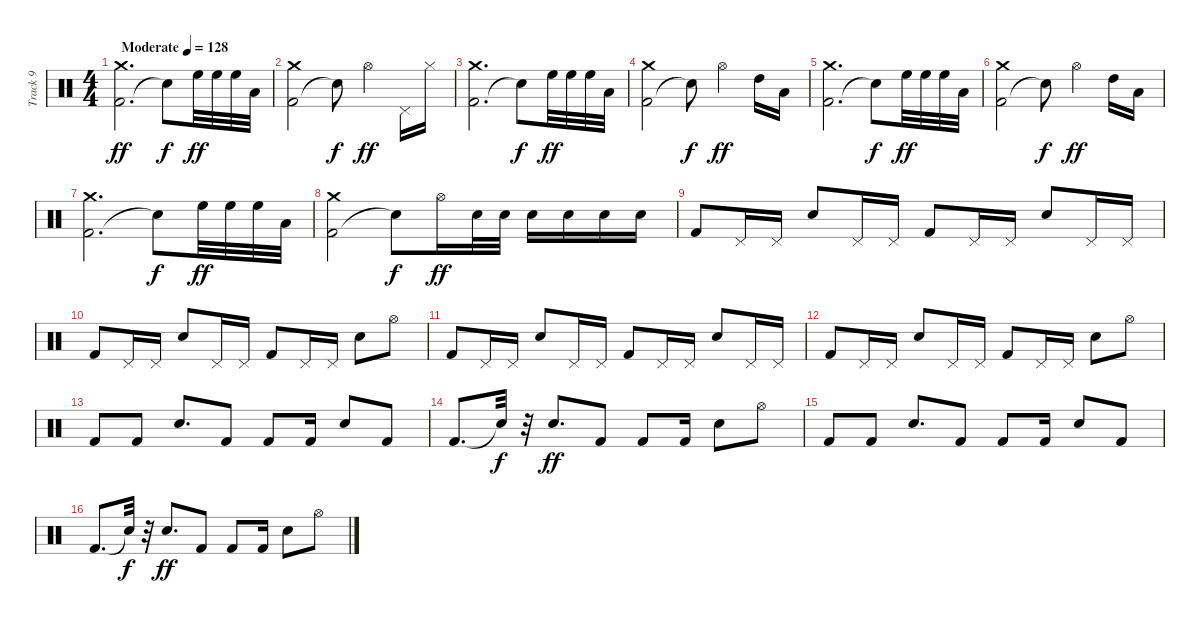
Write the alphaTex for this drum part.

\track ("Track 9" "Track 9") {instrument percussion}
\staff {score}
\articulation defaults
\ts (4 4)
\tempo (128 "Moderate")
\clef neutral
\ks c
("Kick (hit) 2" "Crash medium (hit)").2{d dy ff} "Snare (hit)"{t}.8{dy f} "High Floor Tom (hit)".32{dy ff} "High Floor Tom (hit)".32 "High Floor Tom (hit)".32 "Low Tom (hit)".32 |
("Kick (hit) 2" "Crash medium (hit)").2 "Snare (hit)"{t}.8{dy f} "Hi-Hat (open)".4{dy ff} "Pedal Hi-Hat (hit)".16 "Hi-Hat (closed)".16 |
("Kick (hit) 2" "Crash medium (hit)").2{d} "Snare (hit)"{t}.8{dy f} "High Floor Tom (hit)".32{dy ff} "High Floor Tom (hit)".32 "High Floor Tom (hit)".32 "Low Tom (hit)".32 |
("Kick (hit) 2" "Crash medium (hit)").2 "Snare (hit)"{t}.8{dy f} "Hi-Hat (open)".4{dy ff} "High Tom (hit)".16 "Low Tom (hit)".16 |
("Kick (hit) 2" "Crash medium (hit)").2{d} "Snare (hit)"{t}.8{dy f} "High Floor Tom (hit)".32{dy ff} "High Floor Tom (hit)".32 "High Floor Tom (hit)".32 "Low Tom (hit)".32 |
("Kick (hit) 2" "Crash medium (hit)").2 "Snare (hit)"{t}.8{dy f} "Hi-Hat (open)".4{dy ff} "High Tom (hit)".16 "Low Tom (hit)".16 |
("Kick (hit) 2" "Crash medium (hit)").2{d} "Snare (hit)"{t}.8{dy f} "High Floor Tom (hit)".32{dy ff} "High Floor Tom (hit)".32 "High Floor Tom (hit)".32 "Low Tom (hit)".32 |
("Kick (hit) 2" "Crash medium (hit)").2 "Snare (hit)"{t}.8{dy f} "Hi-Hat (open)".16{dy ff} "Snare (hit) 2".32 "Snare (hit) 2".32 "Snare (hit) 2".16 "Snare (hit) 2".16 "Snare (hit) 2".16 "Snare (hit) 2".16 |
"Kick (hit) 2".8 "Pedal Hi-Hat (hit)".16 "Pedal Hi-Hat (hit)".16 "Snare (hit) 2".8 "Pedal Hi-Hat (hit)".16 "Pedal Hi-Hat (hit)".16 "Kick (hit) 2".8 "Pedal Hi-Hat (hit)".16 "Pedal Hi-Hat (hit)".16 "Snare (hit) 2".8 "Pedal Hi-Hat (hit)".16 "Pedal Hi-Hat (hit)".16 |
"Kick (hit) 2".8 "Pedal Hi-Hat (hit)".16 "Pedal Hi-Hat (hit)".16 "Snare (hit) 2".8 "Pedal Hi-Hat (hit)".16 "Pedal Hi-Hat (hit)".16 "Kick (hit) 2".8 "Pedal Hi-Hat (hit)".16 "Pedal Hi-Hat (hit)".16 "Snare (hit) 2".8 "Hi-Hat (open)".8 |
"Kick (hit) 2".8 "Pedal Hi-Hat (hit)".16 "Pedal Hi-Hat (hit)".16 "Snare (hit) 2".8 "Pedal Hi-Hat (hit)".16 "Pedal Hi-Hat (hit)".16 "Kick (hit) 2".8 "Pedal Hi-Hat (hit)".16 "Pedal Hi-Hat (hit)".16 "Snare (hit) 2".8 "Pedal Hi-Hat (hit)".16 "Pedal Hi-Hat (hit)".16 |
"Kick (hit) 2".8 "Pedal Hi-Hat (hit)".16 "Pedal Hi-Hat (hit)".16 "Snare (hit) 2".8 "Pedal Hi-Hat (hit)".16 "Pedal Hi-Hat (hit)".16 "Kick (hit) 2".8 "Pedal Hi-Hat (hit)".16 "Pedal Hi-Hat (hit)".16 "Snare (hit) 2".8 "Hi-Hat (open)".8 |
"Kick (hit) 2".8 "Kick (hit) 2".8 "Snare (hit) 2".8{d} "Kick (hit) 2".8 "Kick (hit) 2".8 "Kick (hit) 2".16 "Snare (hit) 2".8 "Kick (hit) 2".8 |
"Kick (hit) 2".8{d} "Snare (hit)"{t}.32{dy f} r.32 "Snare (hit) 2".8{d dy ff} "Kick (hit) 2".8 "Kick (hit) 2".8 "Kick (hit) 2".16 "Snare (hit) 2".8 "Hi-Hat (open)".8 |
"Kick (hit) 2".8 "Kick (hit) 2".8 "Snare (hit) 2".8{d} "Kick (hit) 2".8 "Kick (hit) 2".8 "Kick (hit) 2".16 "Snare (hit) 2".8 "Kick (hit) 2".8 |
"Kick (hit) 2".8{d} "Snare (hit)"{t}.32{dy f} r.32 "Snare (hit) 2".8{d dy ff} "Kick (hit) 2".8 "Kick (hit) 2".8 "Kick (hit) 2".16 "Snare (hit) 2".8 "Hi-Hat (open)".8
